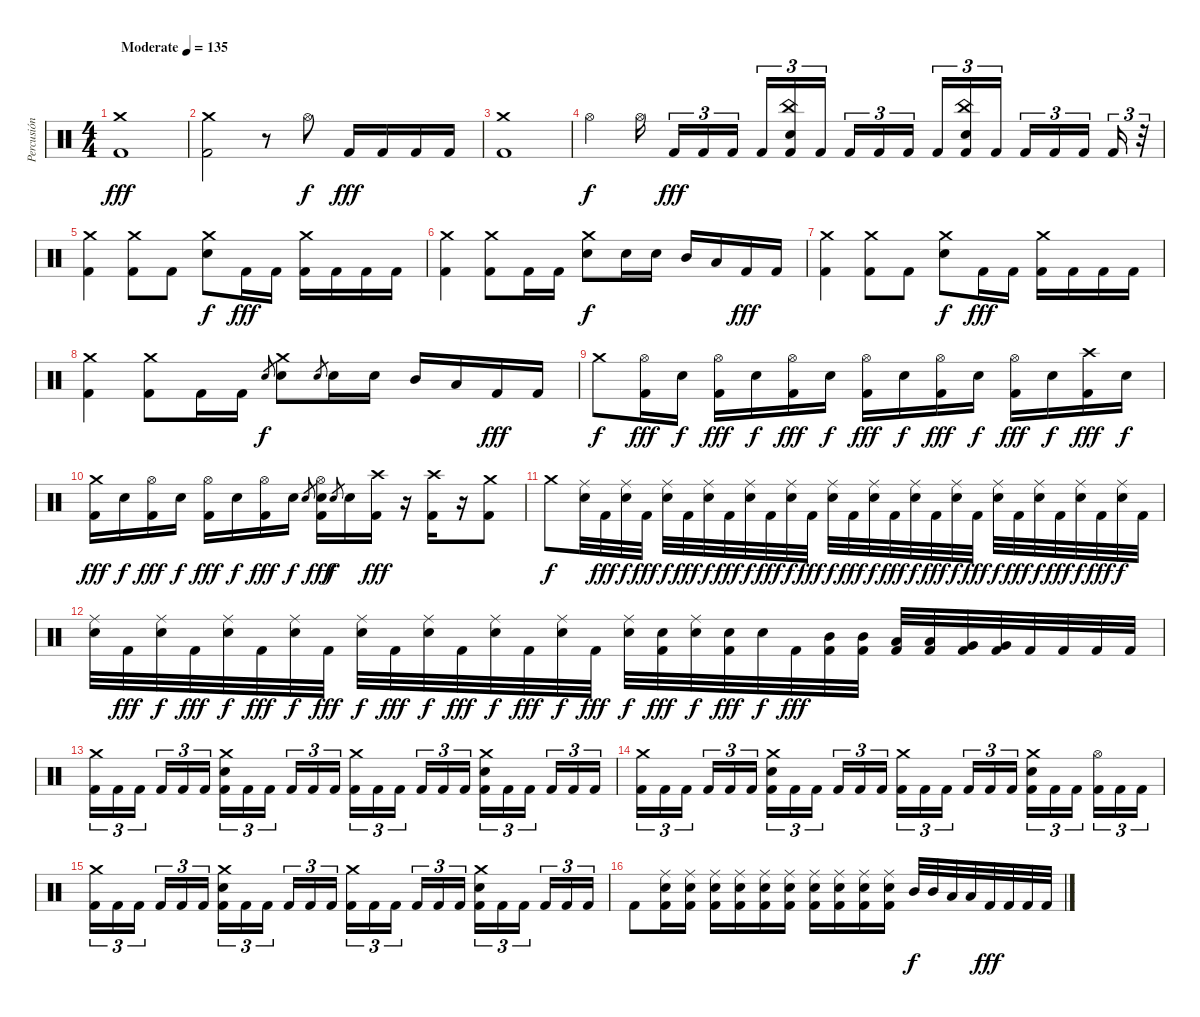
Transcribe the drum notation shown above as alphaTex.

\track ("Percusión" "Percusión") {instrument percussion}
\staff {score}
\articulation defaults
\ts (4 4)
\tempo (135 "Moderate")
\clef neutral
\ks c
("Crash medium (hit)" "Kick (hit) 2").1{dy fff} |
("Crash medium (hit)" "Kick (hit) 2").2 r.8 "Hi-Hat (open)".8{dy f} "Kick (hit) 2".16{dy fff} "Kick (hit) 2".16 "Kick (hit) 2".16 "Kick (hit) 2".16 |
("Crash medium (hit)" "Kick (hit) 2").1 |
"Hi-Hat (open)".4{dy f} "Hi-Hat (open)".16{beam splitsecondary} "Kick (hit) 2".16{tu (3 2) dy fff} "Kick (hit) 2".16{tu (3 2)} "Kick (hit) 2".16{tu (3 2) beam splitsecondary} "Kick (hit) 2".16{tu (3 2)} ("China (hit)" "Electric Snare (hit)" "Kick (hit) 2").16{tu (3 2)} "Kick (hit) 2".16{tu (3 2) beam splitsecondary} "Kick (hit) 2".16{tu (3 2)} "Kick (hit) 2".16{tu (3 2)} "Kick (hit) 2".16{tu (3 2) beam splitsecondary} "Kick (hit) 2".16{tu (3 2)} ("China (hit)" "Electric Snare (hit)" "Kick (hit) 2").16{tu (3 2)} "Kick (hit) 2".16{tu (3 2) beam splitsecondary} "Kick (hit) 2".16{tu (3 2)} "Kick (hit) 2".16{tu (3 2)} "Kick (hit) 2".16{tu (3 2) beam splitsecondary} "Kick (hit) 2".16{tu (3 2)} r.32{tu (3 2)} |
("Crash medium (hit)" "Kick (hit) 2").4 ("Crash medium (hit)" "Kick (hit) 2").8 "Kick (hit) 2".8 ("Crash medium (hit)" "Electric Snare (hit)").8{dy f} "Kick (hit) 2".16{dy fff} "Kick (hit) 2".16 ("Crash medium (hit)" "Kick (hit) 2").16 "Kick (hit) 2".16 "Kick (hit) 2".16 "Kick (hit) 2".16 |
("Crash medium (hit)" "Kick (hit) 2").4 ("Crash medium (hit)" "Kick (hit) 2").8 "Kick (hit) 2".16 "Kick (hit) 2".16 ("Crash medium (hit)" "Electric Snare (hit)").8{dy f} "Electric Snare (hit)".16 "Electric Snare (hit)".16 "Mid Tom (hit)".16 "Low Tom (hit)".16 "Kick (hit) 2".16{dy fff} "Kick (hit) 2".16 |
("Crash medium (hit)" "Kick (hit) 2").4 ("Crash medium (hit)" "Kick (hit) 2").8 "Kick (hit) 2".8 ("Crash medium (hit)" "Electric Snare (hit)").8{dy f} "Kick (hit) 2".16{dy fff} "Kick (hit) 2".16 ("Crash medium (hit)" "Kick (hit) 2").16 "Kick (hit) 2".16 "Kick (hit) 2".16 "Kick (hit) 2".16 |
("Crash medium (hit)" "Kick (hit) 2").4 ("Crash medium (hit)" "Kick (hit) 2").8 "Kick (hit) 2".16 "Kick (hit) 2".16 "Electric Snare (hit)".8{gr dy f} ("Crash medium (hit)" "Electric Snare (hit)").8 "Electric Snare (hit)".8{gr} "Electric Snare (hit)".16 "Electric Snare (hit)".16 "Mid Tom (hit)".16 "Low Tom (hit)".16 "Kick (hit) 2".16{dy fff} "Kick (hit) 2".16 |
"Crash medium (hit)".8{dy f} ("Hi-Hat (open)" "Kick (hit) 2").16{dy fff} "Electric Snare (hit)".16{dy f} ("Hi-Hat (open)" "Kick (hit) 2").16{dy fff} "Electric Snare (hit)".16{dy f} ("Hi-Hat (open)" "Kick (hit) 2").16{dy fff} "Electric Snare (hit)".16{dy f} ("Hi-Hat (open)" "Kick (hit) 2").16{dy fff} "Electric Snare (hit)".16{dy f} ("Hi-Hat (open)" "Kick (hit) 2").16{dy fff} "Electric Snare (hit)".16{dy f} ("Hi-Hat (open)" "Kick (hit) 2").16{dy fff} "Electric Snare (hit)".16{dy f} ("Crash high (hit)" "Kick (hit) 2").16{dy fff} "Electric Snare (hit)".16{dy f} |
("Crash medium (hit)" "Kick (hit) 2").16{dy fff} "Electric Snare (hit)".16{dy f} ("Hi-Hat (open)" "Kick (hit) 2").16{dy fff} "Electric Snare (hit)".16{dy f} ("Hi-Hat (open)" "Kick (hit) 2").16{dy fff} "Electric Snare (hit)".16{dy f} ("Hi-Hat (open)" "Kick (hit) 2").16{dy fff} "Electric Snare (hit)".16{dy f} "Electric Snare (hit)".8{gr} ("Hi-Hat (open)" "Electric Snare (hit)" "Kick (hit) 2").16{dy fff} "Electric Snare (hit)".8{gr dy f} "Electric Snare (hit)".16 ("Crash high (hit)" "Kick (hit) 2").16{dy fff} r.16 ("Crash high (hit)" "Kick (hit) 2").16 r.16 ("Crash medium (hit)" "Kick (hit) 2").8 |
"Crash medium (hit)".8{dy f} ("Ride (middle)" "Electric Snare (hit)").32 "Kick (hit) 2".32{dy fff} ("Ride (middle)" "Electric Snare (hit)").32{dy f} "Kick (hit) 2".32{dy fff} ("Ride (middle)" "Electric Snare (hit)").32{dy f} "Kick (hit) 2".32{dy fff} ("Ride (middle)" "Electric Snare (hit)").32{dy f} "Kick (hit) 2".32{dy fff} ("Ride (middle)" "Electric Snare (hit)").32{dy f} "Kick (hit) 2".32{dy fff} ("Ride (middle)" "Electric Snare (hit)").32{dy f} "Kick (hit) 2".32{dy fff} ("Ride (middle)" "Electric Snare (hit)").32{dy f} "Kick (hit) 2".32{dy fff} ("Ride (middle)" "Electric Snare (hit)").32{dy f} "Kick (hit) 2".32{dy fff} ("Ride (middle)" "Electric Snare (hit)").32{dy f} "Kick (hit) 2".32{dy fff} ("Ride (middle)" "Electric Snare (hit)").32{dy f} "Kick (hit) 2".32{dy fff} ("Ride (middle)" "Electric Snare (hit)").32{dy f} "Kick (hit) 2".32{dy fff} ("Ride (middle)" "Electric Snare (hit)").32{dy f} "Kick (hit) 2".32{dy fff} ("Ride (middle)" "Electric Snare (hit)").32{dy f} "Kick (hit) 2".32{dy fff} ("Ride (middle)" "Electric Snare (hit)").32{dy f} "Kick (hit) 2".32 |
("Ride (middle)" "Electric Snare (hit)").32 "Kick (hit) 2".32{dy fff} ("Ride (middle)" "Electric Snare (hit)").32{dy f} "Kick (hit) 2".32{dy fff} ("Ride (middle)" "Electric Snare (hit)").32{dy f} "Kick (hit) 2".32{dy fff} ("Ride (middle)" "Electric Snare (hit)").32{dy f} "Kick (hit) 2".32{dy fff} ("Ride (middle)" "Electric Snare (hit)").32{dy f} "Kick (hit) 2".32{dy fff} ("Ride (middle)" "Electric Snare (hit)").32{dy f} "Kick (hit) 2".32{dy fff} ("Ride (middle)" "Electric Snare (hit)").32{dy f} "Kick (hit) 2".32{dy fff} ("Ride (middle)" "Electric Snare (hit)").32{dy f} "Kick (hit) 2".32{dy fff} ("Ride (middle)" "Electric Snare (hit)").32{dy f} ("Electric Snare (hit)" "Kick (hit) 2").32{dy fff} ("Ride (middle)" "Electric Snare (hit)").32{dy f} ("Electric Snare (hit)" "Kick (hit) 2").32{dy fff} "Electric Snare (hit)".32{dy f} "Kick (hit) 2".32{dy fff} ("Mid Tom (hit)" "Kick (hit) 2").32 ("Mid Tom (hit)" "Kick (hit) 2").32 ("Low Tom (hit)" "Kick (hit) 2").32 ("Low Tom (hit)" "Kick (hit) 2").32 ("Very Low Tom (hit)" "Kick (hit) 2").32 ("Very Low Tom (hit)" "Kick (hit) 2").32 "Kick (hit) 2".32 "Kick (hit) 2".32 "Kick (hit) 2".32 "Kick (hit) 2".32 |
("Crash medium (hit)" "Kick (hit) 2").16{tu (3 2)} "Kick (hit) 2".16{tu (3 2)} "Kick (hit) 2".16{tu (3 2) beam splitsecondary} "Kick (hit) 2".16{tu (3 2)} "Kick (hit) 2".16{tu (3 2)} "Kick (hit) 2".16{tu (3 2)} ("Crash medium (hit)" "Electric Snare (hit)" "Kick (hit) 2").16{tu (3 2)} "Kick (hit) 2".16{tu (3 2)} "Kick (hit) 2".16{tu (3 2) beam splitsecondary} "Kick (hit) 2".16{tu (3 2)} "Kick (hit) 2".16{tu (3 2)} "Kick (hit) 2".16{tu (3 2)} ("Crash medium (hit)" "Kick (hit) 2").16{tu (3 2)} "Kick (hit) 2".16{tu (3 2)} "Kick (hit) 2".16{tu (3 2) beam splitsecondary} "Kick (hit) 2".16{tu (3 2)} "Kick (hit) 2".16{tu (3 2)} "Kick (hit) 2".16{tu (3 2)} ("Crash medium (hit)" "Electric Snare (hit)" "Kick (hit) 2").16{tu (3 2)} "Kick (hit) 2".16{tu (3 2)} "Kick (hit) 2".16{tu (3 2) beam splitsecondary} "Kick (hit) 2".16{tu (3 2)} "Kick (hit) 2".16{tu (3 2)} "Kick (hit) 2".16{tu (3 2)} |
("Crash medium (hit)" "Kick (hit) 2").16{tu (3 2)} "Kick (hit) 2".16{tu (3 2)} "Kick (hit) 2".16{tu (3 2) beam splitsecondary} "Kick (hit) 2".16{tu (3 2)} "Kick (hit) 2".16{tu (3 2)} "Kick (hit) 2".16{tu (3 2)} ("Crash medium (hit)" "Electric Snare (hit)" "Kick (hit) 2").16{tu (3 2)} "Kick (hit) 2".16{tu (3 2)} "Kick (hit) 2".16{tu (3 2) beam splitsecondary} "Kick (hit) 2".16{tu (3 2)} "Kick (hit) 2".16{tu (3 2)} "Kick (hit) 2".16{tu (3 2)} ("Crash medium (hit)" "Kick (hit) 2").16{tu (3 2)} "Kick (hit) 2".16{tu (3 2)} "Kick (hit) 2".16{tu (3 2) beam splitsecondary} "Kick (hit) 2".16{tu (3 2)} "Kick (hit) 2".16{tu (3 2)} "Kick (hit) 2".16{tu (3 2)} ("Crash medium (hit)" "Electric Snare (hit)" "Kick (hit) 2").16{tu (3 2)} "Kick (hit) 2".16{tu (3 2)} "Kick (hit) 2".16{tu (3 2) beam splitsecondary} ("Hi-Hat (open)" "Kick (hit) 2").16{tu (3 2)} "Kick (hit) 2".16{tu (3 2)} "Kick (hit) 2".16{tu (3 2)} |
("Crash medium (hit)" "Kick (hit) 2").16{tu (3 2)} "Kick (hit) 2".16{tu (3 2)} "Kick (hit) 2".16{tu (3 2) beam splitsecondary} "Kick (hit) 2".16{tu (3 2)} "Kick (hit) 2".16{tu (3 2)} "Kick (hit) 2".16{tu (3 2)} ("Crash medium (hit)" "Electric Snare (hit)" "Kick (hit) 2").16{tu (3 2)} "Kick (hit) 2".16{tu (3 2)} "Kick (hit) 2".16{tu (3 2) beam splitsecondary} "Kick (hit) 2".16{tu (3 2)} "Kick (hit) 2".16{tu (3 2)} "Kick (hit) 2".16{tu (3 2)} ("Crash medium (hit)" "Kick (hit) 2").16{tu (3 2)} "Kick (hit) 2".16{tu (3 2)} "Kick (hit) 2".16{tu (3 2) beam splitsecondary} "Kick (hit) 2".16{tu (3 2)} "Kick (hit) 2".16{tu (3 2)} "Kick (hit) 2".16{tu (3 2)} ("Crash medium (hit)" "Electric Snare (hit)" "Kick (hit) 2").16{tu (3 2)} "Kick (hit) 2".16{tu (3 2)} "Kick (hit) 2".16{tu (3 2) beam splitsecondary} "Kick (hit) 2".16{tu (3 2)} "Kick (hit) 2".16{tu (3 2)} "Kick (hit) 2".16{tu (3 2)} |
"Kick (hit) 2".8 ("Ride (middle)" "Electric Snare (hit)" "Kick (hit) 2").16 ("Ride (middle)" "Electric Snare (hit)" "Kick (hit) 2").16 ("Ride (middle)" "Electric Snare (hit)" "Kick (hit) 2").16 ("Ride (middle)" "Electric Snare (hit)" "Kick (hit) 2").16 ("Ride (middle)" "Electric Snare (hit)" "Kick (hit) 2").16 ("Ride (middle)" "Electric Snare (hit)" "Kick (hit) 2").16 ("Ride (middle)" "Electric Snare (hit)" "Kick (hit) 2").16 ("Ride (middle)" "Electric Snare (hit)" "Kick (hit) 2").16 ("Ride (middle)" "Electric Snare (hit)" "Kick (hit) 2").16 ("Ride (middle)" "Electric Snare (hit)" "Kick (hit) 2").16 "Mid Tom (hit)".32{dy f} "Mid Tom (hit)".32 "Low Tom (hit)".32 "Low Tom (hit)".32 "Kick (hit) 2".32{dy fff} "Kick (hit) 2".32 "Kick (hit) 2".32 "Kick (hit) 2".32
